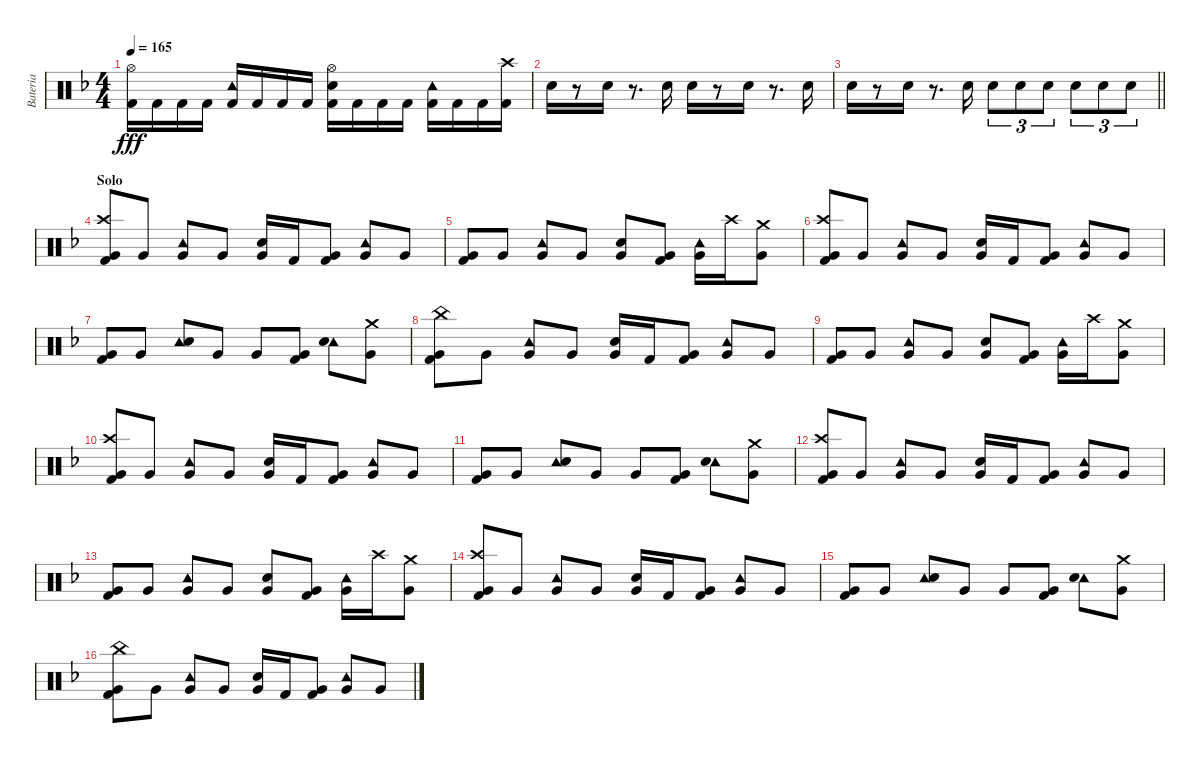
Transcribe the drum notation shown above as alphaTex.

\track ("Bateria" "Bateria") {instrument percussion}
\staff {score}
\articulation defaults
\ts (4 4)
\tempo 165
\clef neutral
\ks f
("Hi-Hat (open)" "Kick (hit) 2").16{dy fff} "Kick (hit) 2".16 "Kick (hit) 2".16 "Kick (hit) 2".16 ("Tambourine (hit)" "Kick (hit) 2").16 "Kick (hit) 2".16 "Kick (hit) 2".16 "Kick (hit) 2".16 ("Hi-Hat (open)" "Snare (hit) 2" "Kick (hit) 2").16 "Kick (hit) 2".16 "Kick (hit) 2".16 "Kick (hit) 2".16 ("Tambourine (hit)" "Kick (hit) 2").16 "Kick (hit) 2".16 "Kick (hit) 2".16 ("Crash high (hit)" "Kick (hit) 2").16 |
"Snare (hit) 2".16 r.8 "Snare (hit) 2".16 r.8{d} "Snare (hit) 2".16 "Snare (hit) 2".16 r.8 "Snare (hit) 2".16 r.8{d} "Snare (hit) 2".16 |
\barLineRight lightlight "Snare (hit) 2".16
r.8 "Snare (hit) 2".16 r.8{d} "Snare (hit) 2".16 "Snare (hit) 2".8{tu (3 2)} "Snare (hit) 2".8{tu (3 2)} "Snare (hit) 2".8{tu (3 2)} "Snare (hit) 2".8{tu (3 2)} "Snare (hit) 2".8{tu (3 2)} "Snare (hit) 2".8{tu (3 2)} |
\section ("" "Solo")
("Crash high (hit)" "Very Low Tom (hit)" "Kick (hit) 2").8 "Very Low Tom (hit)".8 ("Tambourine (hit)" "Very Low Tom (hit)").8 "Very Low Tom (hit)".8 ("Snare (hit) 2" "Very Low Tom (hit)").16 "Kick (hit) 2".16 ("Very Low Tom (hit)" "Kick (hit) 2").8 ("Tambourine (hit)" "Very Low Tom (hit)").8 "Very Low Tom (hit)".8 |
("Very Low Tom (hit)" "Kick (hit) 2").8 "Very Low Tom (hit)".8 ("Tambourine (hit)" "Very Low Tom (hit)").8 "Very Low Tom (hit)".8 ("Snare (hit) 2" "Very Low Tom (hit)").8 ("Very Low Tom (hit)" "Kick (hit) 2").8 ("Tambourine (hit)" "Very Low Tom (hit)").16 "Crash high (hit)".16 ("Crash medium (hit)" "Very Low Tom (hit)").8 |
("Crash high (hit)" "Very Low Tom (hit)" "Kick (hit) 2").8 "Very Low Tom (hit)".8 ("Tambourine (hit)" "Very Low Tom (hit)").8 "Very Low Tom (hit)".8 ("Snare (hit) 2" "Very Low Tom (hit)").16 "Kick (hit) 2".16 ("Very Low Tom (hit)" "Kick (hit) 2").8 ("Tambourine (hit)" "Very Low Tom (hit)").8 "Very Low Tom (hit)".8 |
("Very Low Tom (hit)" "Kick (hit) 2").8 "Very Low Tom (hit)".8 ("Tambourine (hit)" "Snare (hit) 2").8 "Very Low Tom (hit)".8 "Very Low Tom (hit)".8 ("Very Low Tom (hit)" "Kick (hit) 2").8 ("Tambourine (hit)" "Snare (hit) 2").8 ("Crash medium (hit)" "Very Low Tom (hit)").8 |
("China (hit)" "Very Low Tom (hit)" "Kick (hit) 2").8 "Very Low Tom (hit)".8 ("Tambourine (hit)" "Very Low Tom (hit)").8 "Very Low Tom (hit)".8 ("Snare (hit) 2" "Very Low Tom (hit)").16 "Kick (hit) 2".16 ("Very Low Tom (hit)" "Kick (hit) 2").8 ("Tambourine (hit)" "Very Low Tom (hit)").8 "Very Low Tom (hit)".8 |
("Very Low Tom (hit)" "Kick (hit) 2").8 "Very Low Tom (hit)".8 ("Tambourine (hit)" "Very Low Tom (hit)").8 "Very Low Tom (hit)".8 ("Snare (hit) 2" "Very Low Tom (hit)").8 ("Very Low Tom (hit)" "Kick (hit) 2").8 ("Tambourine (hit)" "Very Low Tom (hit)").16 "Crash high (hit)".16 ("Crash medium (hit)" "Very Low Tom (hit)").8 |
("Crash high (hit)" "Very Low Tom (hit)" "Kick (hit) 2").8 "Very Low Tom (hit)".8 ("Tambourine (hit)" "Very Low Tom (hit)").8 "Very Low Tom (hit)".8 ("Snare (hit) 2" "Very Low Tom (hit)").16 "Kick (hit) 2".16 ("Very Low Tom (hit)" "Kick (hit) 2").8 ("Tambourine (hit)" "Very Low Tom (hit)").8 "Very Low Tom (hit)".8 |
("Very Low Tom (hit)" "Kick (hit) 2").8 "Very Low Tom (hit)".8 ("Tambourine (hit)" "Snare (hit) 2").8 "Very Low Tom (hit)".8 "Very Low Tom (hit)".8 ("Very Low Tom (hit)" "Kick (hit) 2").8 ("Tambourine (hit)" "Snare (hit) 2").8 ("Crash medium (hit)" "Very Low Tom (hit)").8 |
("Crash high (hit)" "Very Low Tom (hit)" "Kick (hit) 2").8 "Very Low Tom (hit)".8 ("Tambourine (hit)" "Very Low Tom (hit)").8 "Very Low Tom (hit)".8 ("Snare (hit) 2" "Very Low Tom (hit)").16 "Kick (hit) 2".16 ("Very Low Tom (hit)" "Kick (hit) 2").8 ("Tambourine (hit)" "Very Low Tom (hit)").8 "Very Low Tom (hit)".8 |
("Very Low Tom (hit)" "Kick (hit) 2").8 "Very Low Tom (hit)".8 ("Tambourine (hit)" "Very Low Tom (hit)").8 "Very Low Tom (hit)".8 ("Snare (hit) 2" "Very Low Tom (hit)").8 ("Very Low Tom (hit)" "Kick (hit) 2").8 ("Tambourine (hit)" "Very Low Tom (hit)").16 "Crash high (hit)".16 ("Crash medium (hit)" "Very Low Tom (hit)").8 |
("Crash high (hit)" "Very Low Tom (hit)" "Kick (hit) 2").8 "Very Low Tom (hit)".8 ("Tambourine (hit)" "Very Low Tom (hit)").8 "Very Low Tom (hit)".8 ("Snare (hit) 2" "Very Low Tom (hit)").16 "Kick (hit) 2".16 ("Very Low Tom (hit)" "Kick (hit) 2").8 ("Tambourine (hit)" "Very Low Tom (hit)").8 "Very Low Tom (hit)".8 |
("Very Low Tom (hit)" "Kick (hit) 2").8 "Very Low Tom (hit)".8 ("Tambourine (hit)" "Snare (hit) 2").8 "Very Low Tom (hit)".8 "Very Low Tom (hit)".8 ("Very Low Tom (hit)" "Kick (hit) 2").8 ("Tambourine (hit)" "Snare (hit) 2").8 ("Crash medium (hit)" "Very Low Tom (hit)").8 |
("China (hit)" "Very Low Tom (hit)" "Kick (hit) 2").8 "Very Low Tom (hit)".8 ("Tambourine (hit)" "Very Low Tom (hit)").8 "Very Low Tom (hit)".8 ("Snare (hit) 2" "Very Low Tom (hit)").16 "Kick (hit) 2".16 ("Very Low Tom (hit)" "Kick (hit) 2").8 ("Tambourine (hit)" "Very Low Tom (hit)").8 "Very Low Tom (hit)".8
